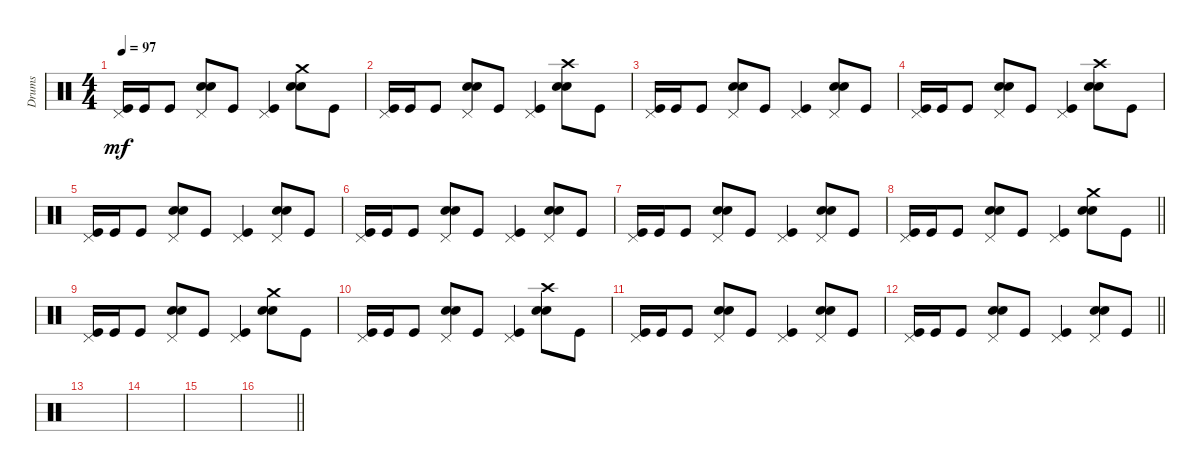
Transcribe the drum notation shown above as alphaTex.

\track ("Drums" "Drums") {instrument percussion}
\staff {score}
\articulation defaults
\ts (4 4)
\tempo 97
\clef neutral
\ks c
("Pedal Hi-Hat (hit)" "Kick (hit)").16{dy mf} "Kick (hit)".16 "Kick (hit)".8 ("Pedal Hi-Hat (hit)" "Electric Snare (hit)" "Snare (hit) 2").8 "Kick (hit)".8 ("Pedal Hi-Hat (hit)" "Kick (hit)").4 ("Crash medium (hit)" "Electric Snare (hit)" "Snare (hit) 2").8 "Kick (hit)".8 |
("Pedal Hi-Hat (hit)" "Kick (hit)").16 "Kick (hit)".16 "Kick (hit)".8 ("Pedal Hi-Hat (hit)" "Electric Snare (hit)" "Snare (hit) 2").8 "Kick (hit)".8 ("Pedal Hi-Hat (hit)" "Kick (hit)").4 ("Crash high (hit)" "Electric Snare (hit)" "Snare (hit) 2").8 "Kick (hit)".8 |
("Pedal Hi-Hat (hit)" "Kick (hit)").16 "Kick (hit)".16 "Kick (hit)".8 ("Pedal Hi-Hat (hit)" "Electric Snare (hit)" "Snare (hit) 2").8 "Kick (hit)".8 ("Pedal Hi-Hat (hit)" "Kick (hit)").4 ("Pedal Hi-Hat (hit)" "Electric Snare (hit)" "Snare (hit) 2").8 "Kick (hit)".8 |
("Pedal Hi-Hat (hit)" "Kick (hit)").16 "Kick (hit)".16 "Kick (hit)".8 ("Pedal Hi-Hat (hit)" "Electric Snare (hit)" "Snare (hit) 2").8 "Kick (hit)".8 ("Pedal Hi-Hat (hit)" "Kick (hit)").4 ("Crash high (hit)" "Electric Snare (hit)" "Snare (hit) 2").8 "Kick (hit)".8 |
("Pedal Hi-Hat (hit)" "Kick (hit)").16 "Kick (hit)".16 "Kick (hit)".8 ("Pedal Hi-Hat (hit)" "Electric Snare (hit)" "Snare (hit) 2").8 "Kick (hit)".8 ("Pedal Hi-Hat (hit)" "Kick (hit)").4 ("Pedal Hi-Hat (hit)" "Electric Snare (hit)" "Snare (hit) 2").8 "Kick (hit)".8 |
("Pedal Hi-Hat (hit)" "Kick (hit)").16 "Kick (hit)".16 "Kick (hit)".8 ("Pedal Hi-Hat (hit)" "Electric Snare (hit)" "Snare (hit) 2").8 "Kick (hit)".8 ("Pedal Hi-Hat (hit)" "Kick (hit)").4 ("Pedal Hi-Hat (hit)" "Electric Snare (hit)" "Snare (hit) 2").8 "Kick (hit)".8 |
("Pedal Hi-Hat (hit)" "Kick (hit)").16 "Kick (hit)".16 "Kick (hit)".8 ("Pedal Hi-Hat (hit)" "Electric Snare (hit)" "Snare (hit) 2").8 "Kick (hit)".8 ("Pedal Hi-Hat (hit)" "Kick (hit)").4 ("Pedal Hi-Hat (hit)" "Electric Snare (hit)" "Snare (hit) 2").8 "Kick (hit)".8 |
\barLineRight lightlight
("Pedal Hi-Hat (hit)" "Kick (hit)").16 "Kick (hit)".16 "Kick (hit)".8 ("Pedal Hi-Hat (hit)" "Electric Snare (hit)" "Snare (hit) 2").8 "Kick (hit)".8 ("Pedal Hi-Hat (hit)" "Kick (hit)").4 ("Crash medium (hit)" "Electric Snare (hit)" "Snare (hit) 2").8 "Kick (hit)".8 |
("Pedal Hi-Hat (hit)" "Kick (hit)").16 "Kick (hit)".16 "Kick (hit)".8 ("Pedal Hi-Hat (hit)" "Electric Snare (hit)" "Snare (hit) 2").8 "Kick (hit)".8 ("Pedal Hi-Hat (hit)" "Kick (hit)").4 ("Crash medium (hit)" "Electric Snare (hit)" "Snare (hit) 2").8 "Kick (hit)".8 |
("Pedal Hi-Hat (hit)" "Kick (hit)").16 "Kick (hit)".16 "Kick (hit)".8 ("Pedal Hi-Hat (hit)" "Electric Snare (hit)" "Snare (hit) 2").8 "Kick (hit)".8 ("Pedal Hi-Hat (hit)" "Kick (hit)").4 ("Crash high (hit)" "Electric Snare (hit)" "Snare (hit) 2").8 "Kick (hit)".8 |
("Pedal Hi-Hat (hit)" "Kick (hit)").16 "Kick (hit)".16 "Kick (hit)".8 ("Pedal Hi-Hat (hit)" "Electric Snare (hit)" "Snare (hit) 2").8 "Kick (hit)".8 ("Pedal Hi-Hat (hit)" "Kick (hit)").4 ("Pedal Hi-Hat (hit)" "Electric Snare (hit)" "Snare (hit) 2").8 "Kick (hit)".8 |
\barLineRight lightlight
("Pedal Hi-Hat (hit)" "Kick (hit)").16{volume 0} "Kick (hit)".16 "Kick (hit)".8 ("Pedal Hi-Hat (hit)" "Electric Snare (hit)" "Snare (hit) 2").8 "Kick (hit)".8 ("Pedal Hi-Hat (hit)" "Kick (hit)").4 ("Pedal Hi-Hat (hit)" "Electric Snare (hit)" "Snare (hit) 2").8 "Kick (hit)".8 |
|
|
|
\barLineRight lightlight
